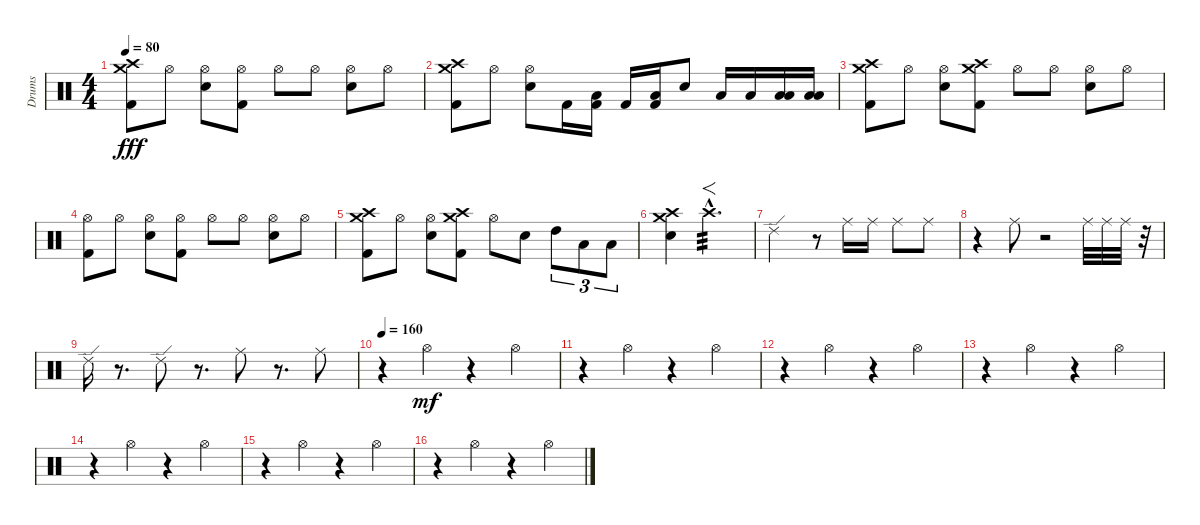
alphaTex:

\track ("Drums" "Drums") {instrument percussion}
\staff {score}
\articulation defaults
\ts (4 4)
\tempo 80
\clef neutral
\ks c
("Crash high (hit)" "Crash medium (hit)" "Kick (hit) 2").8{dy fff} "Hi-Hat (open)".8 ("Hi-Hat (open)" "Electric Snare (hit)").8 ("Hi-Hat (open)" "Kick (hit) 2").8 "Hi-Hat (open)".8 "Hi-Hat (open)".8 ("Hi-Hat (open)" "Electric Snare (hit)").8 "Hi-Hat (open)".8 |
("Crash high (hit)" "Crash medium (hit)" "Kick (hit) 2").8 "Hi-Hat (open)".8 ("Hi-Hat (open)" "Electric Snare (hit)").8 "Kick (hit) 2".16 ("Low Floor Tom (hit)" "Kick (hit) 2").16 "Kick (hit) 2".16 ("Low Floor Tom (hit)" "Kick (hit) 2").16 "Electric Snare (hit)".8 "Low Floor Tom (hit)".16 "Low Floor Tom (hit)".16 ("Low Floor Tom (hit)" "Low Tom (hit)").16 ("Low Floor Tom (hit)" "Low Tom (hit)").16 |
("Crash high (hit)" "Crash medium (hit)" "Kick (hit) 2").8 "Hi-Hat (open)".8 ("Hi-Hat (open)" "Electric Snare (hit)").8 ("Crash high (hit)" "Crash medium (hit)" "Kick (hit) 2").8 "Hi-Hat (open)".8 "Hi-Hat (open)".8 ("Hi-Hat (open)" "Electric Snare (hit)").8 "Hi-Hat (open)".8 |
("Hi-Hat (open)" "Kick (hit) 2").8 "Hi-Hat (open)".8 ("Hi-Hat (open)" "Electric Snare (hit)").8 ("Hi-Hat (open)" "Kick (hit) 2").8 "Hi-Hat (open)".8 "Hi-Hat (open)".8 ("Hi-Hat (open)" "Electric Snare (hit)").8 "Hi-Hat (open)".8 |
("Crash high (hit)" "Crash medium (hit)" "Kick (hit) 2").8 "Hi-Hat (open)".8 ("Hi-Hat (open)" "Electric Snare (hit)").8 ("Crash high (hit)" "Crash medium (hit)" "Kick (hit) 2").8 "Hi-Hat (open)".8 "Electric Snare (hit)".8 "High Tom (hit)".8{tu (3 2)} "Low Tom (hit)".8{tu (3 2)} "Low Floor Tom (hit)".8{tu (3 2)} |
("Crash medium (hit)" "Crash high (hit)" "Electric Snare (hit)").4 "Crash high (hit)"{hac}.2{f d tp 3} |
"Ride (edge) 2".2 r.8 "Ride (middle)".16 "Ride (middle)".16 "Ride (middle)".8 "Ride (middle)".8 |
r.4 "Ride (middle)".8 r.2 "Ride (middle)".32 "Ride (middle)".32 "Ride (middle)".32 r.32 |
"Ride (edge) 2".16 r.8{d} "Ride (edge) 2".8 r.8{d} "Ride (middle)".8 r.8{d} "Ride (middle)".8 |
\tempo 160
r.4 "Hi-Hat (open)".4{dy mf} r.4 "Hi-Hat (open)".4 |
r.4 "Hi-Hat (open)".4 r.4 "Hi-Hat (open)".4 |
r.4 "Hi-Hat (open)".4 r.4 "Hi-Hat (open)".4 |
r.4 "Hi-Hat (open)".4 r.4 "Hi-Hat (open)".4 |
r.4 "Hi-Hat (open)".4 r.4 "Hi-Hat (open)".4 |
r.4 "Hi-Hat (open)".4 r.4 "Hi-Hat (open)".4 |
r.4 "Hi-Hat (open)".4 r.4 "Hi-Hat (open)".4
